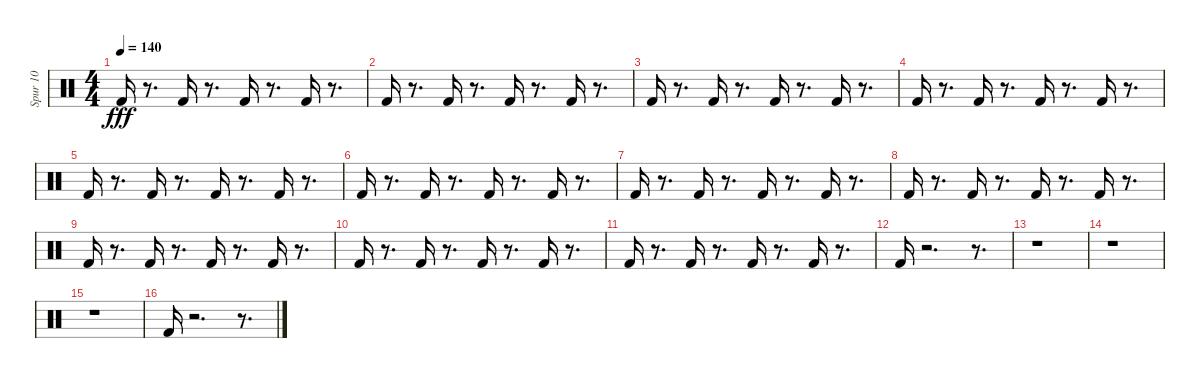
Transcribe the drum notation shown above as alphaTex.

\track ("Spur 10" "Spur 10") {instrument percussion}
\staff {score}
\articulation defaults
\ts (4 4)
\tempo 140
\clef neutral
\ks c "Kick (hit) 2".16{dy fff}
r.8{d} "Kick (hit) 2".16 r.8{d} "Kick (hit) 2".16 r.8{d} "Kick (hit) 2".16 r.8{d} |
"Kick (hit) 2".16 r.8{d} "Kick (hit) 2".16 r.8{d} "Kick (hit) 2".16 r.8{d} "Kick (hit) 2".16 r.8{d} |
"Kick (hit) 2".16 r.8{d} "Kick (hit) 2".16 r.8{d} "Kick (hit) 2".16 r.8{d} "Kick (hit) 2".16 r.8{d} |
"Kick (hit) 2".16 r.8{d} "Kick (hit) 2".16 r.8{d} "Kick (hit) 2".16 r.8{d} "Kick (hit) 2".16 r.8{d} |
"Kick (hit) 2".16 r.8{d} "Kick (hit) 2".16 r.8{d} "Kick (hit) 2".16 r.8{d} "Kick (hit) 2".16 r.8{d} |
"Kick (hit) 2".16 r.8{d} "Kick (hit) 2".16 r.8{d} "Kick (hit) 2".16 r.8{d} "Kick (hit) 2".16 r.8{d} |
"Kick (hit) 2".16 r.8{d} "Kick (hit) 2".16 r.8{d} "Kick (hit) 2".16 r.8{d} "Kick (hit) 2".16 r.8{d} |
"Kick (hit) 2".16 r.8{d} "Kick (hit) 2".16 r.8{d} "Kick (hit) 2".16 r.8{d} "Kick (hit) 2".16 r.8{d} |
"Kick (hit) 2".16 r.8{d} "Kick (hit) 2".16 r.8{d} "Kick (hit) 2".16 r.8{d} "Kick (hit) 2".16 r.8{d} |
"Kick (hit) 2".16 r.8{d} "Kick (hit) 2".16 r.8{d} "Kick (hit) 2".16 r.8{d} "Kick (hit) 2".16 r.8{d} |
"Kick (hit) 2".16 r.8{d} "Kick (hit) 2".16 r.8{d} "Kick (hit) 2".16 r.8{d} "Kick (hit) 2".16 r.8{d} |
"Kick (hit) 2".16 r.2{d} r.8{d} |
r.1 |
r.1 |
r.1 |
"Kick (hit) 2".16 r.2{d} r.8{d}
